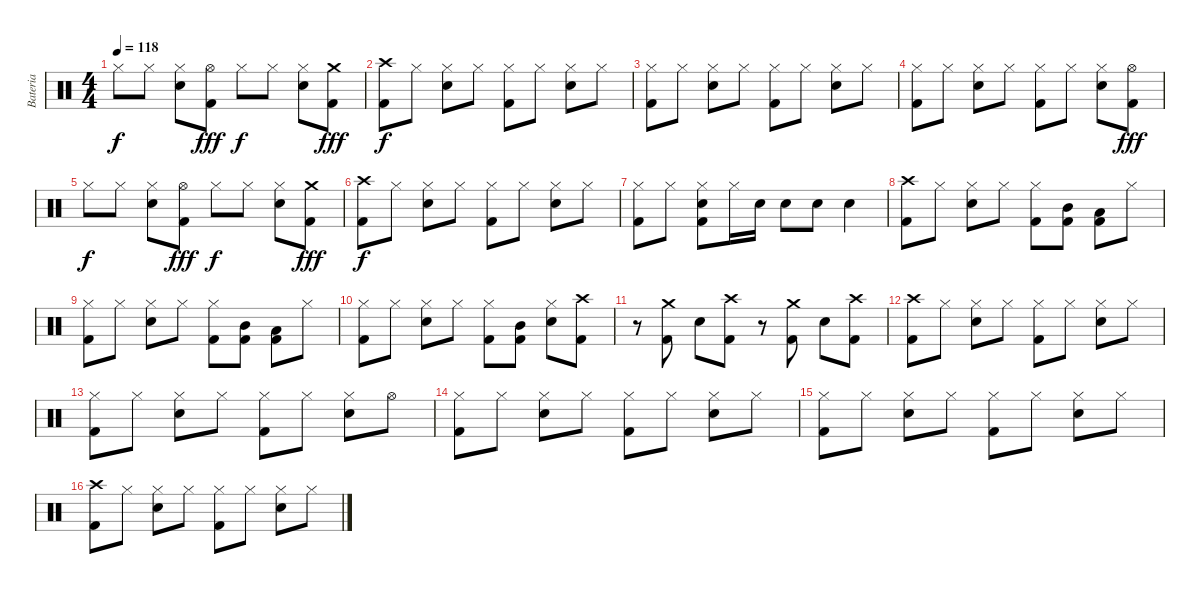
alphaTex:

\track ("Bateria" "Bateria") {instrument percussion}
\staff {score}
\articulation defaults
\ts (4 4)
\tempo 118
\clef neutral
\ks c "Hi-Hat (closed)".8{dy f} "Hi-Hat (closed)".8
("Electric Snare (hit)" "Hi-Hat (closed)").8 ("Kick (hit) 2" "Hi-Hat (open)").8{dy fff} "Hi-Hat (closed)".8{dy f} "Hi-Hat (closed)".8 ("Electric Snare (hit)" "Hi-Hat (closed)").8 ("Kick (hit) 2" "Crash medium (hit)").8{dy fff} |
("Crash high (hit)" "Kick (hit) 2").8{dy f} "Hi-Hat (closed)".8 ("Electric Snare (hit)" "Hi-Hat (closed)").8 "Hi-Hat (closed)".8 ("Kick (hit) 2" "Hi-Hat (closed)").8 "Hi-Hat (closed)".8 ("Electric Snare (hit)" "Hi-Hat (closed)").8 "Hi-Hat (closed)".8 |
("Kick (hit) 2" "Hi-Hat (closed)").8 "Hi-Hat (closed)".8 ("Electric Snare (hit)" "Hi-Hat (closed)").8 "Hi-Hat (closed)".8 ("Kick (hit) 2" "Hi-Hat (closed)").8 "Hi-Hat (closed)".8 ("Electric Snare (hit)" "Hi-Hat (closed)").8 "Hi-Hat (closed)".8 |
("Kick (hit) 2" "Hi-Hat (closed)").8 "Hi-Hat (closed)".8 ("Electric Snare (hit)" "Hi-Hat (closed)").8 "Hi-Hat (closed)".8 ("Kick (hit) 2" "Hi-Hat (closed)").8 "Hi-Hat (closed)".8 ("Electric Snare (hit)" "Hi-Hat (closed)").8 ("Kick (hit) 2" "Hi-Hat (open)").8{dy fff} |
"Hi-Hat (closed)".8{dy f} "Hi-Hat (closed)".8 ("Electric Snare (hit)" "Hi-Hat (closed)").8 ("Kick (hit) 2" "Hi-Hat (open)").8{dy fff} "Hi-Hat (closed)".8{dy f} "Hi-Hat (closed)".8 ("Electric Snare (hit)" "Hi-Hat (closed)").8 ("Kick (hit) 2" "Crash medium (hit)").8{dy fff} |
("Crash high (hit)" "Kick (hit) 2").8{dy f} "Hi-Hat (closed)".8 ("Electric Snare (hit)" "Hi-Hat (closed)").8 "Hi-Hat (closed)".8 ("Kick (hit) 2" "Hi-Hat (closed)").8 "Hi-Hat (closed)".8 ("Electric Snare (hit)" "Hi-Hat (closed)").8 "Hi-Hat (closed)".8 |
("Kick (hit) 2" "Hi-Hat (closed)").8 "Hi-Hat (closed)".8 ("Electric Snare (hit)" "Hi-Hat (closed)" "Kick (hit) 2").8 "Hi-Hat (closed)".16 "Electric Snare (hit)".16 "Electric Snare (hit)".8 "Electric Snare (hit)".8 "Electric Snare (hit)".4 |
("Kick (hit) 2" "Crash high (hit)").8 "Hi-Hat (closed)".8 ("Hi-Hat (closed)" "Electric Snare (hit)").8 "Hi-Hat (closed)".8 ("Hi-Hat (closed)" "Kick (hit) 2").8 ("Mid Tom (hit)" "Kick (hit) 2").8 ("Low Tom (hit)" "Kick (hit) 2").8 "Hi-Hat (closed)".8 |
("Hi-Hat (closed)" "Kick (hit) 2").8 "Hi-Hat (closed)".8 ("Hi-Hat (closed)" "Electric Snare (hit)").8 "Hi-Hat (closed)".8 ("Hi-Hat (closed)" "Kick (hit) 2").8 ("Mid Tom (hit)" "Kick (hit) 2").8 ("Low Tom (hit)" "Kick (hit) 2").8 "Hi-Hat (closed)".8 |
("Hi-Hat (closed)" "Kick (hit) 2").8 "Hi-Hat (closed)".8 ("Hi-Hat (closed)" "Electric Snare (hit)").8 "Hi-Hat (closed)".8 ("Hi-Hat (closed)" "Kick (hit) 2").8 ("Mid Tom (hit)" "Kick (hit) 2").8 ("Hi-Hat (closed)" "Electric Snare (hit)").8 ("Crash high (hit)" "Kick (hit) 2").8 |
r.8 ("Crash medium (hit)" "Kick (hit) 2").8 "Electric Snare (hit)".8 ("Crash high (hit)" "Kick (hit) 2").8 r.8 ("Crash medium (hit)" "Kick (hit) 2").8 "Electric Snare (hit)".8 ("Kick (hit) 2" "Crash high (hit)").8 |
("Kick (hit) 2" "Crash high (hit)").8 "Hi-Hat (closed)".8 ("Electric Snare (hit)" "Hi-Hat (closed)").8 "Hi-Hat (closed)".8 ("Kick (hit) 2" "Hi-Hat (closed)").8 "Hi-Hat (closed)".8 ("Electric Snare (hit)" "Hi-Hat (closed)").8 "Hi-Hat (closed)".8 |
("Kick (hit) 2" "Hi-Hat (closed)").8 "Hi-Hat (closed)".8 ("Electric Snare (hit)" "Hi-Hat (closed)").8 "Hi-Hat (closed)".8 ("Kick (hit) 2" "Hi-Hat (closed)").8 "Hi-Hat (closed)".8 ("Electric Snare (hit)" "Hi-Hat (closed)").8 "Hi-Hat (open)".8 |
("Kick (hit) 2" "Hi-Hat (closed)").8 "Hi-Hat (closed)".8 ("Electric Snare (hit)" "Hi-Hat (closed)").8 "Hi-Hat (closed)".8 ("Kick (hit) 2" "Hi-Hat (closed)").8 "Hi-Hat (closed)".8 ("Electric Snare (hit)" "Hi-Hat (closed)").8 "Hi-Hat (closed)".8 |
("Kick (hit) 2" "Hi-Hat (closed)").8 "Hi-Hat (closed)".8 ("Electric Snare (hit)" "Hi-Hat (closed)").8 "Hi-Hat (closed)".8 ("Kick (hit) 2" "Hi-Hat (closed)").8 "Hi-Hat (closed)".8 ("Electric Snare (hit)" "Hi-Hat (closed)").8 "Hi-Hat (closed)".8 |
("Kick (hit) 2" "Crash high (hit)").8 "Hi-Hat (closed)".8 ("Electric Snare (hit)" "Hi-Hat (closed)").8 "Hi-Hat (closed)".8 ("Kick (hit) 2" "Hi-Hat (closed)").8 "Hi-Hat (closed)".8 ("Electric Snare (hit)" "Hi-Hat (closed)").8 "Hi-Hat (closed)".8
